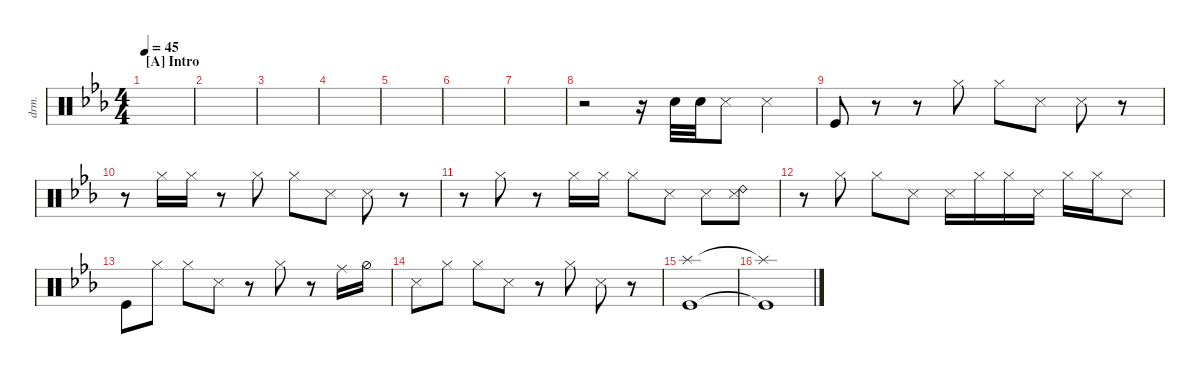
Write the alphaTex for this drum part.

\defaultSystemsLayout 4
\hideDynamics
\bracketExtendMode nobrackets
\otherSystemsTrackNameOrientation horizontal
\track ("Drumkit" "drm.") {instrument percussion}
\staff {score}
\articulation defaults
\ts (4 4)
\section ("A" "Intro")
\tempo 45
\clef neutral
\ks cminor
|
|
|
|
|
|
|
r.2 r.16 "Snare (hit) 2".32 "Snare (hit) 2".32 "Snare (side stick) 3".8{dy mf} "Snare (side stick) 3".4 |
"Kick (hit)".8 r.8 r.8 "Hi-Hat (closed)".8 "Hi-Hat (closed)".8 "Snare (side stick) 3".8 "Snare (side stick) 3".8 r.8 |
r.8 "Hi-Hat (closed)".16 "Hi-Hat (closed)".16 r.8 "Hi-Hat (closed)".8 "Hi-Hat (closed)".8 "Snare (side stick) 3".8 "Snare (side stick) 3".8 r.8 |
r.8 "Hi-Hat (closed)".8 r.8 "Hi-Hat (closed)".16 "Hi-Hat (closed)".16 "Hi-Hat (closed)".8 "Snare (side stick) 3".8 "Snare (side stick) 3".8 ("Snare (side stick) 3" "Ride (bell) 2").8 |
r.8 "Hi-Hat (closed)".8 "Hi-Hat (closed)".8 "Snare (side stick) 3".8 "Snare (side stick) 3".16 "Hi-Hat (closed)".16 "Hi-Hat (closed)".16 "Snare (side stick) 3".16 "Hi-Hat (closed)".16 "Hi-Hat (closed)".16 "Snare (side stick) 3".8 |
"Kick (hit)".8 "Hi-Hat (closed)".8 "Hi-Hat (closed)".8 "Snare (side stick) 3".8 r.8 "Hi-Hat (closed)".8 r.8 "Ride (middle)".16 "Hi-Hat (half)".16 |
"Snare (side stick) 3".8 "Hi-Hat (closed)".8 "Hi-Hat (closed)".8 "Snare (side stick) 3".8 r.8 "Hi-Hat (closed)".8 "Snare (side stick) 3".8 r.8 |
("Splash (hit)" "Kick (hit)").1 |
("Splash (hit)"{t} "Kick (hit)"{t}).1
